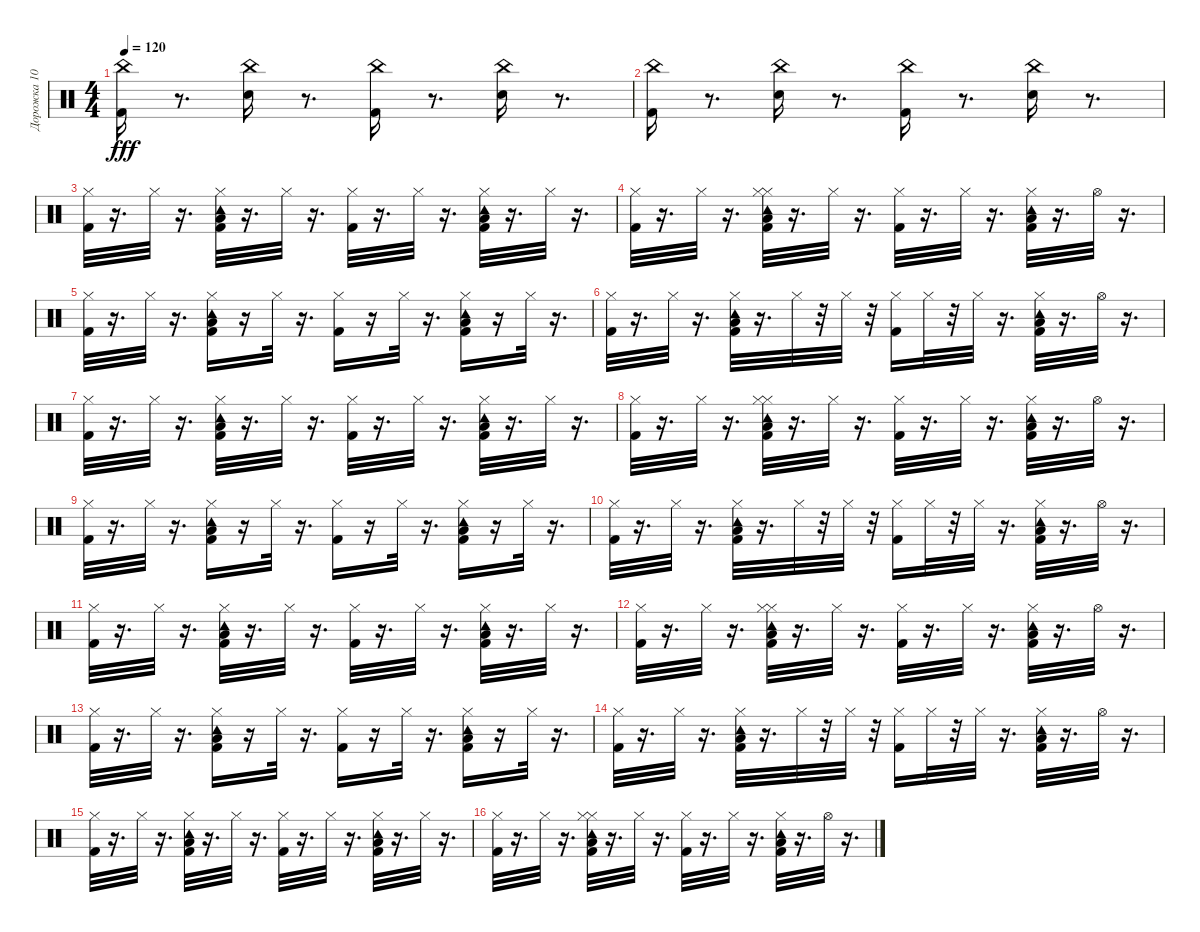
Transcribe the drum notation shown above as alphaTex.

\track ("Дорожка 10" "Дорожка 10") {instrument percussion}
\staff {score}
\articulation defaults
\ts (4 4)
\tempo 120
\clef neutral
\ks c
("China (hit)" "Kick (hit) 2").16{dy fff} r.8{d} ("China (hit)" "Snare (hit) 2").16 r.8{d} ("China (hit)" "Kick (hit) 2").16 r.8{d} ("China (hit)" "Snare (hit) 2").16 r.8{d} |
("China (hit)" "Kick (hit) 2").16 r.8{d} ("China (hit)" "Snare (hit) 2").16 r.8{d} ("Kick (hit) 2" "China (hit)").16 r.8{d} ("China (hit)" "Snare (hit) 2").16 r.8{d} |
("Kick (hit) 2" "Hi-Hat (closed)").32 r.16{d} "Hi-Hat (closed)".32 r.16{d} ("Tambourine (hit)" "Kick (hit) 2" "Hi-Hat (closed)" "Low Floor Tom (hit)").32 r.16{d} "Hi-Hat (closed)".32 r.16{d} ("Kick (hit) 2" "Hi-Hat (closed)").32 r.16{d} "Hi-Hat (closed)".32 r.16{d} ("Tambourine (hit)" "Kick (hit) 2" "Hi-Hat (closed)" "Low Floor Tom (hit)").32 r.16{d} "Hi-Hat (closed)".32 r.16{d} |
("Kick (hit) 2" "Hi-Hat (closed)").32 r.16{d} "Hi-Hat (closed)".32 r.16{d} ("Low Floor Tom (hit)" "Tambourine (hit)" "Kick (hit) 2" "Hi-Hat (closed)" "Hi-Hat (closed)").32 r.16{d} "Hi-Hat (closed)".32 r.16{d} ("Kick (hit) 2" "Hi-Hat (closed)").32 r.16{d} "Hi-Hat (closed)".32 r.16{d} ("Low Floor Tom (hit)" "Tambourine (hit)" "Kick (hit) 2" "Hi-Hat (closed)").32 r.16{d} "Hi-Hat (open)".32 r.16{d} |
("Kick (hit) 2" "Hi-Hat (closed)").32 r.16{d} "Hi-Hat (closed)".32 r.16{d} ("Low Floor Tom (hit)" "Tambourine (hit)" "Kick (hit) 2" "Hi-Hat (closed)").16 r.16 "Hi-Hat (closed)".32 r.16{d} ("Kick (hit) 2" "Hi-Hat (closed)").16 r.16 "Hi-Hat (closed)".32 r.16{d} ("Low Floor Tom (hit)" "Tambourine (hit)" "Kick (hit) 2" "Hi-Hat (closed)").16 r.16 "Hi-Hat (closed)".32 r.16{d} |
("Kick (hit) 2" "Hi-Hat (closed)").32 r.16{d} "Hi-Hat (closed)".32 r.16{d} ("Low Floor Tom (hit)" "Tambourine (hit)" "Kick (hit) 2" "Hi-Hat (closed)").32 r.16{d} "Hi-Hat (closed)".32 r.32 "Hi-Hat (closed)".32 r.32 ("Kick (hit) 2" "Hi-Hat (closed)").16 "Hi-Hat (closed)".32 r.32 "Hi-Hat (closed)".32 r.16{d} ("Tambourine (hit)" "Kick (hit) 2" "Hi-Hat (closed)" "Low Floor Tom (hit)").32 r.16{d} "Hi-Hat (open)".32 r.16{d} |
("Kick (hit) 2" "Hi-Hat (closed)").32 r.16{d} "Hi-Hat (closed)".32 r.16{d} ("Tambourine (hit)" "Kick (hit) 2" "Hi-Hat (closed)" "Low Floor Tom (hit)").32 r.16{d} "Hi-Hat (closed)".32 r.16{d} ("Kick (hit) 2" "Hi-Hat (closed)").32 r.16{d} "Hi-Hat (closed)".32 r.16{d} ("Tambourine (hit)" "Kick (hit) 2" "Hi-Hat (closed)" "Low Floor Tom (hit)").32 r.16{d} "Hi-Hat (closed)".32 r.16{d} |
("Kick (hit) 2" "Hi-Hat (closed)").32 r.16{d} "Hi-Hat (closed)".32 r.16{d} ("Low Floor Tom (hit)" "Tambourine (hit)" "Kick (hit) 2" "Hi-Hat (closed)" "Hi-Hat (closed)").32 r.16{d} "Hi-Hat (closed)".32 r.16{d} ("Kick (hit) 2" "Hi-Hat (closed)").32 r.16{d} "Hi-Hat (closed)".32 r.16{d} ("Low Floor Tom (hit)" "Tambourine (hit)" "Kick (hit) 2" "Hi-Hat (closed)").32 r.16{d} "Hi-Hat (open)".32 r.16{d} |
("Kick (hit) 2" "Hi-Hat (closed)").32 r.16{d} "Hi-Hat (closed)".32 r.16{d} ("Low Floor Tom (hit)" "Tambourine (hit)" "Kick (hit) 2" "Hi-Hat (closed)").16 r.16 "Hi-Hat (closed)".32 r.16{d} ("Kick (hit) 2" "Hi-Hat (closed)").16 r.16 "Hi-Hat (closed)".32 r.16{d} ("Low Floor Tom (hit)" "Tambourine (hit)" "Kick (hit) 2" "Hi-Hat (closed)").16 r.16 "Hi-Hat (closed)".32 r.16{d} |
("Kick (hit) 2" "Hi-Hat (closed)").32 r.16{d} "Hi-Hat (closed)".32 r.16{d} ("Low Floor Tom (hit)" "Tambourine (hit)" "Kick (hit) 2" "Hi-Hat (closed)").32 r.16{d} "Hi-Hat (closed)".32 r.32 "Hi-Hat (closed)".32 r.32 ("Kick (hit) 2" "Hi-Hat (closed)").16 "Hi-Hat (closed)".32 r.32 "Hi-Hat (closed)".32 r.16{d} ("Tambourine (hit)" "Kick (hit) 2" "Hi-Hat (closed)" "Low Floor Tom (hit)").32 r.16{d} "Hi-Hat (open)".32 r.16{d} |
("Kick (hit) 2" "Hi-Hat (closed)").32 r.16{d} "Hi-Hat (closed)".32 r.16{d} ("Tambourine (hit)" "Kick (hit) 2" "Hi-Hat (closed)" "Low Floor Tom (hit)").32 r.16{d} "Hi-Hat (closed)".32 r.16{d} ("Kick (hit) 2" "Hi-Hat (closed)").32 r.16{d} "Hi-Hat (closed)".32 r.16{d} ("Tambourine (hit)" "Kick (hit) 2" "Hi-Hat (closed)" "Low Floor Tom (hit)").32 r.16{d} "Hi-Hat (closed)".32 r.16{d} |
("Kick (hit) 2" "Hi-Hat (closed)").32 r.16{d} "Hi-Hat (closed)".32 r.16{d} ("Low Floor Tom (hit)" "Tambourine (hit)" "Kick (hit) 2" "Hi-Hat (closed)" "Hi-Hat (closed)").32 r.16{d} "Hi-Hat (closed)".32 r.16{d} ("Kick (hit) 2" "Hi-Hat (closed)").32 r.16{d} "Hi-Hat (closed)".32 r.16{d} ("Low Floor Tom (hit)" "Tambourine (hit)" "Kick (hit) 2" "Hi-Hat (closed)").32 r.16{d} "Hi-Hat (open)".32 r.16{d} |
("Kick (hit) 2" "Hi-Hat (closed)").32 r.16{d} "Hi-Hat (closed)".32 r.16{d} ("Low Floor Tom (hit)" "Tambourine (hit)" "Kick (hit) 2" "Hi-Hat (closed)").16 r.16 "Hi-Hat (closed)".32 r.16{d} ("Kick (hit) 2" "Hi-Hat (closed)").16 r.16 "Hi-Hat (closed)".32 r.16{d} ("Low Floor Tom (hit)" "Tambourine (hit)" "Kick (hit) 2" "Hi-Hat (closed)").16 r.16 "Hi-Hat (closed)".32 r.16{d} |
("Kick (hit) 2" "Hi-Hat (closed)").32 r.16{d} "Hi-Hat (closed)".32 r.16{d} ("Low Floor Tom (hit)" "Tambourine (hit)" "Kick (hit) 2" "Hi-Hat (closed)").32 r.16{d} "Hi-Hat (closed)".32 r.32 "Hi-Hat (closed)".32 r.32 ("Kick (hit) 2" "Hi-Hat (closed)").16 "Hi-Hat (closed)".32 r.32 "Hi-Hat (closed)".32 r.16{d} ("Tambourine (hit)" "Kick (hit) 2" "Hi-Hat (closed)" "Low Floor Tom (hit)").32 r.16{d} "Hi-Hat (open)".32 r.16{d} |
("Kick (hit) 2" "Hi-Hat (closed)").32 r.16{d} "Hi-Hat (closed)".32 r.16{d} ("Tambourine (hit)" "Kick (hit) 2" "Hi-Hat (closed)" "Low Floor Tom (hit)").32 r.16{d} "Hi-Hat (closed)".32 r.16{d} ("Kick (hit) 2" "Hi-Hat (closed)").32 r.16{d} "Hi-Hat (closed)".32 r.16{d} ("Tambourine (hit)" "Kick (hit) 2" "Hi-Hat (closed)" "Low Floor Tom (hit)").32 r.16{d} "Hi-Hat (closed)".32 r.16{d} |
("Kick (hit) 2" "Hi-Hat (closed)").32 r.16{d} "Hi-Hat (closed)".32 r.16{d} ("Low Floor Tom (hit)" "Tambourine (hit)" "Kick (hit) 2" "Hi-Hat (closed)" "Hi-Hat (closed)").32 r.16{d} "Hi-Hat (closed)".32 r.16{d} ("Kick (hit) 2" "Hi-Hat (closed)").32 r.16{d} "Hi-Hat (closed)".32 r.16{d} ("Low Floor Tom (hit)" "Tambourine (hit)" "Kick (hit) 2" "Hi-Hat (closed)").32 r.16{d} "Hi-Hat (open)".32 r.16{d}
